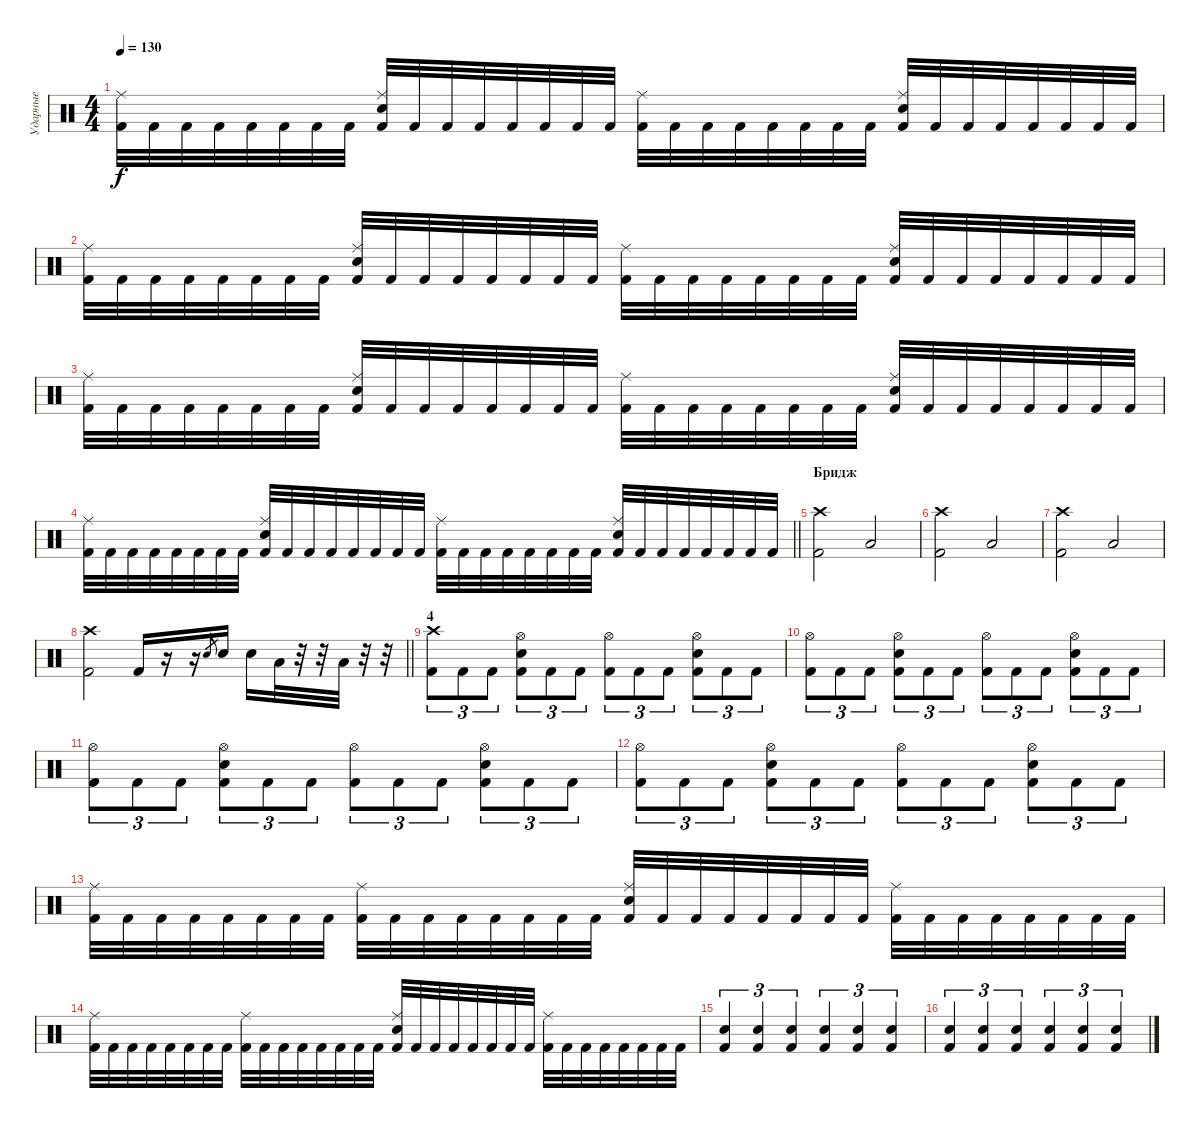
\track ("Ударные" "Ударные") {instrument percussion}
\staff {score}
\articulation defaults
\ts (4 4)
\tempo 130
\clef neutral
\ks c
("Kick (hit) 2" "Ride (middle)").32{dy f} "Kick (hit) 2".32 "Kick (hit) 2".32 "Kick (hit) 2".32 "Kick (hit) 2".32 "Kick (hit) 2".32 "Kick (hit) 2".32 "Kick (hit) 2".32 ("Kick (hit) 2" "Electric Snare (hit)" "Ride (middle)").32 "Kick (hit) 2".32 "Kick (hit) 2".32 "Kick (hit) 2".32 "Kick (hit) 2".32 "Kick (hit) 2".32 "Kick (hit) 2".32 "Kick (hit) 2".32 ("Kick (hit) 2" "Ride (middle)").32 "Kick (hit) 2".32 "Kick (hit) 2".32 "Kick (hit) 2".32 "Kick (hit) 2".32 "Kick (hit) 2".32 "Kick (hit) 2".32 "Kick (hit) 2".32 ("Kick (hit) 2" "Electric Snare (hit)" "Ride (middle)").32 "Kick (hit) 2".32 "Kick (hit) 2".32 "Kick (hit) 2".32 "Kick (hit) 2".32 "Kick (hit) 2".32 "Kick (hit) 2".32 "Kick (hit) 2".32 |
("Kick (hit) 2" "Ride (middle)").32 "Kick (hit) 2".32 "Kick (hit) 2".32 "Kick (hit) 2".32 "Kick (hit) 2".32 "Kick (hit) 2".32 "Kick (hit) 2".32 "Kick (hit) 2".32 ("Kick (hit) 2" "Electric Snare (hit)" "Ride (middle)").32 "Kick (hit) 2".32 "Kick (hit) 2".32 "Kick (hit) 2".32 "Kick (hit) 2".32 "Kick (hit) 2".32 "Kick (hit) 2".32 "Kick (hit) 2".32 ("Kick (hit) 2" "Ride (middle)").32 "Kick (hit) 2".32 "Kick (hit) 2".32 "Kick (hit) 2".32 "Kick (hit) 2".32 "Kick (hit) 2".32 "Kick (hit) 2".32 "Kick (hit) 2".32 ("Kick (hit) 2" "Electric Snare (hit)" "Ride (middle)").32 "Kick (hit) 2".32 "Kick (hit) 2".32 "Kick (hit) 2".32 "Kick (hit) 2".32 "Kick (hit) 2".32 "Kick (hit) 2".32 "Kick (hit) 2".32 |
("Kick (hit) 2" "Ride (middle)").32 "Kick (hit) 2".32 "Kick (hit) 2".32 "Kick (hit) 2".32 "Kick (hit) 2".32 "Kick (hit) 2".32 "Kick (hit) 2".32 "Kick (hit) 2".32 ("Kick (hit) 2" "Electric Snare (hit)" "Ride (middle)").32 "Kick (hit) 2".32 "Kick (hit) 2".32 "Kick (hit) 2".32 "Kick (hit) 2".32 "Kick (hit) 2".32 "Kick (hit) 2".32 "Kick (hit) 2".32 ("Kick (hit) 2" "Ride (middle)").32 "Kick (hit) 2".32 "Kick (hit) 2".32 "Kick (hit) 2".32 "Kick (hit) 2".32 "Kick (hit) 2".32 "Kick (hit) 2".32 "Kick (hit) 2".32 ("Kick (hit) 2" "Electric Snare (hit)" "Ride (middle)").32 "Kick (hit) 2".32 "Kick (hit) 2".32 "Kick (hit) 2".32 "Kick (hit) 2".32 "Kick (hit) 2".32 "Kick (hit) 2".32 "Kick (hit) 2".32 |
\barLineRight lightlight
("Kick (hit) 2" "Ride (middle)").32 "Kick (hit) 2".32 "Kick (hit) 2".32 "Kick (hit) 2".32 "Kick (hit) 2".32 "Kick (hit) 2".32 "Kick (hit) 2".32 "Kick (hit) 2".32 ("Kick (hit) 2" "Electric Snare (hit)" "Ride (middle)").32 "Kick (hit) 2".32 "Kick (hit) 2".32 "Kick (hit) 2".32 "Kick (hit) 2".32 "Kick (hit) 2".32 "Kick (hit) 2".32 "Kick (hit) 2".32 ("Kick (hit) 2" "Ride (middle)").32 "Kick (hit) 2".32 "Kick (hit) 2".32 "Kick (hit) 2".32 "Kick (hit) 2".32 "Kick (hit) 2".32 "Kick (hit) 2".32 "Kick (hit) 2".32 ("Kick (hit) 2" "Electric Snare (hit)" "Ride (middle)").32 "Kick (hit) 2".32 "Kick (hit) 2".32 "Kick (hit) 2".32 "Kick (hit) 2".32 "Kick (hit) 2".32 "Kick (hit) 2".32 "Kick (hit) 2".32 |
\section ("" "Бридж")
("Kick (hit) 2" "Crash high (hit)").2 "Low Floor Tom (hit)".2 |
("Kick (hit) 2" "Crash high (hit)").2 "Low Floor Tom (hit)".2 |
("Kick (hit) 2" "Crash high (hit)").2 "Low Floor Tom (hit)".2 |
\barLineRight lightlight
("Kick (hit) 2" "Crash high (hit)").2 "Kick (hit) 2".16 r.16 r.16 "Electric Snare (hit)".8{gr} "Electric Snare (hit)".16 "Electric Snare (hit)".16 "Low Floor Tom (hit)".32 r.32 r.32 "Low Floor Tom (hit)".32 r.32 r.32 |
\section ("" "4")
("Kick (hit) 2" "Crash high (hit)").8{tu (3 2)} "Kick (hit) 2".8{tu (3 2)} "Kick (hit) 2".8{tu (3 2)} ("Kick (hit) 2" "Electric Snare (hit)" "Hi-Hat (open)").8{tu (3 2)} "Kick (hit) 2".8{tu (3 2)} "Kick (hit) 2".8{tu (3 2)} ("Kick (hit) 2" "Hi-Hat (open)").8{tu (3 2)} "Kick (hit) 2".8{tu (3 2)} "Kick (hit) 2".8{tu (3 2)} ("Kick (hit) 2" "Electric Snare (hit)" "Hi-Hat (open)").8{tu (3 2)} "Kick (hit) 2".8{tu (3 2)} "Kick (hit) 2".8{tu (3 2)} |
("Kick (hit) 2" "Hi-Hat (open)").8{tu (3 2)} "Kick (hit) 2".8{tu (3 2)} "Kick (hit) 2".8{tu (3 2)} ("Kick (hit) 2" "Electric Snare (hit)" "Hi-Hat (open)").8{tu (3 2)} "Kick (hit) 2".8{tu (3 2)} "Kick (hit) 2".8{tu (3 2)} ("Kick (hit) 2" "Hi-Hat (open)").8{tu (3 2)} "Kick (hit) 2".8{tu (3 2)} "Kick (hit) 2".8{tu (3 2)} ("Kick (hit) 2" "Electric Snare (hit)" "Hi-Hat (open)").8{tu (3 2)} "Kick (hit) 2".8{tu (3 2)} "Kick (hit) 2".8{tu (3 2)} |
("Kick (hit) 2" "Hi-Hat (open)").8{tu (3 2)} "Kick (hit) 2".8{tu (3 2)} "Kick (hit) 2".8{tu (3 2)} ("Kick (hit) 2" "Electric Snare (hit)" "Hi-Hat (open)").8{tu (3 2)} "Kick (hit) 2".8{tu (3 2)} "Kick (hit) 2".8{tu (3 2)} ("Kick (hit) 2" "Hi-Hat (open)").8{tu (3 2)} "Kick (hit) 2".8{tu (3 2)} "Kick (hit) 2".8{tu (3 2)} ("Kick (hit) 2" "Electric Snare (hit)" "Hi-Hat (open)").8{tu (3 2)} "Kick (hit) 2".8{tu (3 2)} "Kick (hit) 2".8{tu (3 2)} |
("Kick (hit) 2" "Hi-Hat (open)").8{tu (3 2)} "Kick (hit) 2".8{tu (3 2)} "Kick (hit) 2".8{tu (3 2)} ("Kick (hit) 2" "Electric Snare (hit)" "Hi-Hat (open)").8{tu (3 2)} "Kick (hit) 2".8{tu (3 2)} "Kick (hit) 2".8{tu (3 2)} ("Kick (hit) 2" "Hi-Hat (open)").8{tu (3 2)} "Kick (hit) 2".8{tu (3 2)} "Kick (hit) 2".8{tu (3 2)} ("Kick (hit) 2" "Electric Snare (hit)" "Hi-Hat (open)").8{tu (3 2)} "Kick (hit) 2".8{tu (3 2)} "Kick (hit) 2".8{tu (3 2)} |
("Kick (hit) 2" "Ride (middle)").32 "Kick (hit) 2".32 "Kick (hit) 2".32 "Kick (hit) 2".32 "Kick (hit) 2".32 "Kick (hit) 2".32 "Kick (hit) 2".32 "Kick (hit) 2".32 ("Kick (hit) 2" "Ride (middle)").32 "Kick (hit) 2".32 "Kick (hit) 2".32 "Kick (hit) 2".32 "Kick (hit) 2".32 "Kick (hit) 2".32 "Kick (hit) 2".32 "Kick (hit) 2".32 ("Kick (hit) 2" "Ride (middle)" "Electric Snare (hit)").32 "Kick (hit) 2".32 "Kick (hit) 2".32 "Kick (hit) 2".32 "Kick (hit) 2".32 "Kick (hit) 2".32 "Kick (hit) 2".32 "Kick (hit) 2".32 ("Kick (hit) 2" "Ride (middle)").32 "Kick (hit) 2".32 "Kick (hit) 2".32 "Kick (hit) 2".32 "Kick (hit) 2".32 "Kick (hit) 2".32 "Kick (hit) 2".32 "Kick (hit) 2".32 |
("Kick (hit) 2" "Ride (middle)").32 "Kick (hit) 2".32 "Kick (hit) 2".32 "Kick (hit) 2".32 "Kick (hit) 2".32 "Kick (hit) 2".32 "Kick (hit) 2".32 "Kick (hit) 2".32 ("Kick (hit) 2" "Ride (middle)").32 "Kick (hit) 2".32 "Kick (hit) 2".32 "Kick (hit) 2".32 "Kick (hit) 2".32 "Kick (hit) 2".32 "Kick (hit) 2".32 "Kick (hit) 2".32 ("Kick (hit) 2" "Ride (middle)" "Electric Snare (hit)").32 "Kick (hit) 2".32 "Kick (hit) 2".32 "Kick (hit) 2".32 "Kick (hit) 2".32 "Kick (hit) 2".32 "Kick (hit) 2".32 "Kick (hit) 2".32 ("Kick (hit) 2" "Ride (middle)").32 "Kick (hit) 2".32 "Kick (hit) 2".32 "Kick (hit) 2".32 "Kick (hit) 2".32 "Kick (hit) 2".32 "Kick (hit) 2".32 "Kick (hit) 2".32 |
("Electric Snare (hit)" "Kick (hit) 2").4{tu (3 2)} ("Electric Snare (hit)" "Kick (hit) 2").4{tu (3 2)} ("Electric Snare (hit)" "Kick (hit) 2").4{tu (3 2)} ("Electric Snare (hit)" "Kick (hit) 2").4{tu (3 2)} ("Electric Snare (hit)" "Kick (hit) 2").4{tu (3 2)} ("Electric Snare (hit)" "Kick (hit) 2").4{tu (3 2)} |
("Electric Snare (hit)" "Kick (hit) 2").4{tu (3 2)} ("Electric Snare (hit)" "Kick (hit) 2").4{tu (3 2)} ("Electric Snare (hit)" "Kick (hit) 2").4{tu (3 2)} ("Electric Snare (hit)" "Kick (hit) 2").4{tu (3 2)} ("Electric Snare (hit)" "Kick (hit) 2").4{tu (3 2)} ("Electric Snare (hit)" "Kick (hit) 2").4{tu (3 2)}
